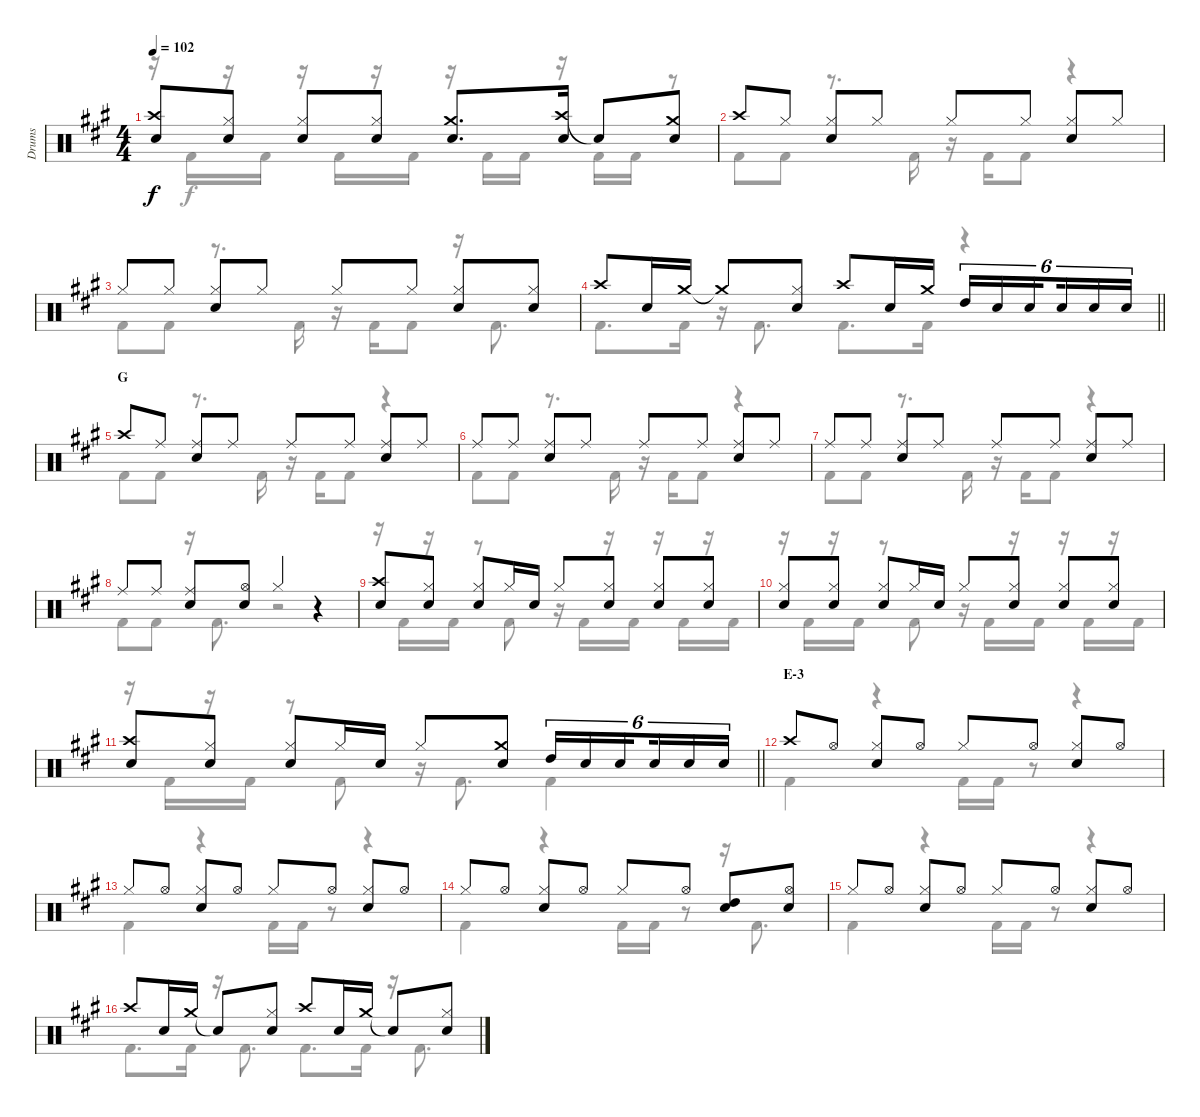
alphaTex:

\track ("Drums" "Drums") {instrument percussion}
\staff {score}
\articulation defaults
\voice
\ts (4 4)
\tempo 102
\clef neutral
\ks a
("Crash high (hit)" "Snare (hit) 2").8{dy f} ("Hi-Hat (closed)" "Snare (hit) 2").8 ("Hi-Hat (closed)" "Snare (hit) 2").8 ("Hi-Hat (closed)" "Snare (hit) 2").8 ("Crash medium (hit)" "Snare (hit) 2").8{d} ("Crash high (hit)" "Snare (hit) 2").16 "Snare (hit)"{t}.8 ("Crash medium (hit)" "Snare (hit) 2").8 |
"Crash high (hit)".8 "Hi-Hat (closed)".8 ("Hi-Hat (closed)" "Snare (hit) 2").8 "Hi-Hat (closed)".8 "Hi-Hat (closed)".8 "Hi-Hat (closed)".8 ("Hi-Hat (closed)" "Snare (hit) 2").8 "Hi-Hat (closed)".8 |
"Hi-Hat (closed)".8 "Hi-Hat (closed)".8 ("Hi-Hat (closed)" "Snare (hit) 2").8 "Hi-Hat (closed)".8 "Hi-Hat (closed)".8 "Hi-Hat (closed)".8 ("Hi-Hat (closed)" "Snare (hit) 2").8 ("Hi-Hat (closed)" "Snare (hit) 2").8 |
\barLineRight lightlight "Crash high (hit)".8 "Snare (hit) 2".16 "Crash medium (hit)".16 "Crash medium (hit)"{t}.8
("Hi-Hat (closed)" "Snare (hit) 2").8 "Crash high (hit)".8 "Snare (hit) 2".16 "Crash medium (hit)".16 "High Tom (hit)".16{tu (6 4)} "Snare (hit) 2".16{tu (6 4)} "Snare (hit) 2".16{tu (6 4) beam splitsecondary} "Snare (hit) 2".16{tu (6 4)} "Snare (hit) 2".16{tu (6 4)} "Snare (hit) 2".16{tu (6 4)} |
\section ("" "G")
"Crash high (hit)".8 "Ride (middle)".8 ("Ride (middle)" "Snare (hit) 2").8 "Ride (middle)".8 "Ride (middle)".8 "Ride (middle)".8 ("Ride (middle)" "Snare (hit) 2").8 "Ride (middle)".8 |
"Ride (middle)".8 "Ride (middle)".8 ("Ride (middle)" "Snare (hit) 2").8 "Ride (middle)".8 "Ride (middle)".8 "Ride (middle)".8 ("Ride (middle)" "Snare (hit) 2").8 "Ride (middle)".8 |
"Ride (middle)".8 "Ride (middle)".8 ("Ride (middle)" "Snare (hit) 2").8 "Ride (middle)".8 "Ride (middle)".8 "Ride (middle)".8 ("Ride (middle)" "Snare (hit) 2").8 "Ride (middle)".8 |
"Ride (middle)".8 "Ride (middle)".8 ("Ride (middle)" "Snare (hit) 2").8 ("Hi-Hat (open)" "Snare (hit) 2").8 "Hi-Hat (closed)".4 r.4 |
("Crash high (hit)" "Snare (hit) 2").8 ("Hi-Hat (closed)" "Snare (hit) 2").8 ("Hi-Hat (closed)" "Snare (hit) 2").8 "Hi-Hat (closed)".16 "Snare (hit) 2".16 "Hi-Hat (closed)".8 ("Hi-Hat (closed)" "Snare (hit) 2").8 ("Hi-Hat (closed)" "Snare (hit) 2").8 ("Hi-Hat (closed)" "Snare (hit) 2").8 |
("Hi-Hat (closed)" "Snare (hit) 2").8 ("Hi-Hat (closed)" "Snare (hit) 2").8 ("Hi-Hat (closed)" "Snare (hit) 2").8 "Hi-Hat (closed)".16 "Snare (hit) 2".16 "Hi-Hat (closed)".8 ("Hi-Hat (closed)" "Snare (hit) 2").8 ("Hi-Hat (closed)" "Snare (hit) 2").8 ("Hi-Hat (closed)" "Snare (hit) 2").8 |
\barLineRight lightlight
("Crash high (hit)" "Snare (hit) 2").8 ("Hi-Hat (closed)" "Snare (hit) 2").8 ("Hi-Hat (closed)" "Snare (hit) 2").8 "Hi-Hat (closed)".16 "Snare (hit) 2".16 "Hi-Hat (closed)".8 ("Crash medium (hit)" "Snare (hit) 2").8 "High Tom (hit)".16{tu (6 4)} "Snare (hit) 2".16{tu (6 4)} "Snare (hit) 2".16{tu (6 4) beam splitsecondary} "Snare (hit) 2".16{tu (6 4)} "Snare (hit) 2".16{tu (6 4)} "Snare (hit) 2".16{tu (6 4)} |
\section ("" "E-3")
"Crash high (hit)".8 "Hi-Hat (open)".8 ("Hi-Hat (closed)" "Snare (hit) 2").8 "Hi-Hat (open)".8 "Hi-Hat (closed)".8 "Hi-Hat (open)".8 ("Hi-Hat (closed)" "Snare (hit) 2").8 "Hi-Hat (open)".8 |
"Hi-Hat (closed)".8 "Hi-Hat (open)".8 ("Hi-Hat (closed)" "Snare (hit) 2").8 "Hi-Hat (open)".8 "Hi-Hat (closed)".8 "Hi-Hat (open)".8 ("Hi-Hat (closed)" "Snare (hit) 2").8 "Hi-Hat (open)".8 |
"Hi-Hat (closed)".8 "Hi-Hat (open)".8 ("Hi-Hat (closed)" "Snare (hit) 2").8 "Hi-Hat (open)".8 "Hi-Hat (closed)".8 "Hi-Hat (open)".8 ("High Tom (hit)" "Snare (hit) 2").8 ("Hi-Hat (open)" "Snare (hit) 2").8 |
"Hi-Hat (closed)".8 "Hi-Hat (open)".8 ("Hi-Hat (closed)" "Snare (hit) 2").8 "Hi-Hat (open)".8 "Hi-Hat (closed)".8 "Hi-Hat (open)".8 ("Hi-Hat (closed)" "Snare (hit) 2").8 "Hi-Hat (open)".8 |
"Crash high (hit)".8 "Snare (hit) 2".16 "Crash medium (hit)".16 "Snare (hit)"{t}.8 ("Hi-Hat (closed)" "Snare (hit) 2").8 "Crash high (hit)".8 "Snare (hit) 2".16 "Crash medium (hit)".16 "Snare (hit)"{t}.8 ("Hi-Hat (closed)" "Snare (hit) 2").8
\voice
\clef neutral
\ottava regular
\simile none
\ks a
r.16{dy f} "Kick (hit) 2".16 r.16 "Kick (hit) 2".16 r.16 "Kick (hit) 2".16 r.16 "Kick (hit) 2".16 r.16 "Kick (hit) 2".16 "Kick (hit) 2".16 r.16 "Kick (hit) 2".16 "Kick (hit) 2".16 r.8 |
"Kick (hit) 2".8 "Kick (hit) 2".8 r.8{d} "Kick (hit) 2".16 r.16 "Kick (hit) 2".16 "Kick (hit) 2".8 r.4 |
"Kick (hit) 2".8 "Kick (hit) 2".8 r.8{d} "Kick (hit) 2".16 r.16 "Kick (hit) 2".16 "Kick (hit) 2".8 r.16 "Kick (hit) 2".8{d} |
\barLineRight lightlight "Kick (hit) 2".8{d} "Kick (hit) 2".16
r.16 "Kick (hit) 2".8{d} "Kick (hit) 2".8{d} "Kick (hit) 2".16 r.4 |
"Kick (hit) 2".8 "Kick (hit) 2".8 r.8{d} "Kick (hit) 2".16 r.16 "Kick (hit) 2".16 "Kick (hit) 2".8 r.4 |
"Kick (hit) 2".8 "Kick (hit) 2".8 r.8{d} "Kick (hit) 2".16 r.16 "Kick (hit) 2".16 "Kick (hit) 2".8 r.4 |
"Kick (hit) 2".8 "Kick (hit) 2".8 r.8{d} "Kick (hit) 2".16 r.16 "Kick (hit) 2".16 "Kick (hit) 2".8 r.4 |
"Kick (hit) 2".8 "Kick (hit) 2".8 r.16 "Kick (hit) 2".8{d} r.2 |
r.16 "Kick (hit) 2".16 r.16 "Kick (hit) 2".16 r.8 "Kick (hit) 2".8 r.16 "Kick (hit) 2".16 r.16 "Kick (hit) 2".16 r.16 "Kick (hit) 2".16 r.16 "Kick (hit) 2".16 |
r.16 "Kick (hit) 2".16 r.16 "Kick (hit) 2".16 r.8 "Kick (hit) 2".8 r.16 "Kick (hit) 2".16 r.16 "Kick (hit) 2".16 r.16 "Kick (hit) 2".16 r.16 "Kick (hit) 2".16 |
\barLineRight lightlight
r.16 "Kick (hit) 2".16 r.16 "Kick (hit) 2".16 r.8 "Kick (hit) 2".8 r.16 "Kick (hit) 2".8{d} "Kick (hit) 2".4 |
"Kick (hit) 2".4 r.4 "Kick (hit) 2".16 "Kick (hit) 2".16 r.8 r.4 |
"Kick (hit) 2".4 r.4 "Kick (hit) 2".16 "Kick (hit) 2".16 r.8 r.4 |
"Kick (hit) 2".4 r.4 "Kick (hit) 2".16 "Kick (hit) 2".16 r.8 r.16 "Kick (hit) 2".8{d} |
"Kick (hit) 2".4 r.4 "Kick (hit) 2".16 "Kick (hit) 2".16 r.8 r.4 |
"Kick (hit) 2".8{d} "Kick (hit) 2".16 r.16 "Kick (hit) 2".8{d} "Kick (hit) 2".8{d} "Kick (hit) 2".16 r.16 "Kick (hit) 2".8{d}
